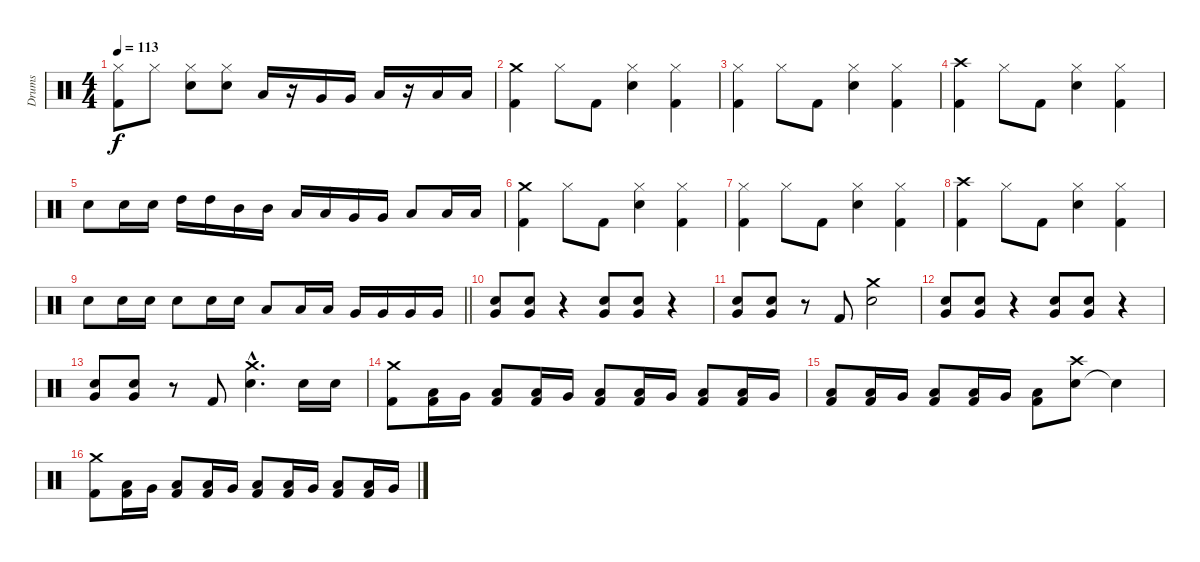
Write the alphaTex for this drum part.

\track ("Drums" "Drums") {instrument percussion}
\staff {score}
\articulation defaults
\ts (4 4)
\tempo 113
\clef neutral
\ks c
("Kick (hit) 2" "Hi-Hat (closed)").8{dy f} "Hi-Hat (closed)".8 ("Snare (hit) 2" "Hi-Hat (closed)").8 ("Snare (hit) 2" "Hi-Hat (closed)").8 "Low Tom (hit)".16 r.16 "Very Low Tom (hit)".16 "Very Low Tom (hit)".16 "Low Floor Tom (hit)".16 r.16 "Low Floor Tom (hit)".16 "Low Floor Tom (hit)".16 |
("Kick (hit) 2" "Crash medium (hit)").4 "Hi-Hat (closed)".8 "Kick (hit) 2".8 ("Snare (hit) 2" "Hi-Hat (closed)").4 ("Kick (hit) 2" "Hi-Hat (closed)").4 |
("Kick (hit) 2" "Hi-Hat (closed)").4 "Hi-Hat (closed)".8 "Kick (hit) 2".8 ("Snare (hit) 2" "Hi-Hat (closed)").4 ("Kick (hit) 2" "Hi-Hat (closed)").4 |
("Kick (hit) 2" "Crash high (hit)").4 "Hi-Hat (closed)".8 "Kick (hit) 2".8 ("Snare (hit) 2" "Hi-Hat (closed)").4 ("Kick (hit) 2" "Hi-Hat (closed)").4 |
"Snare (hit) 2".8 "Snare (hit) 2".16 "Snare (hit) 2".16 "High Tom (hit)".16 "High Tom (hit)".16 "Mid Tom (hit)".16 "Mid Tom (hit)".16 "Low Tom (hit)".16 "Low Tom (hit)".16 "Very Low Tom (hit)".16 "Very Low Tom (hit)".16 "Low Floor Tom (hit)".8 "Low Floor Tom (hit)".16 "Low Floor Tom (hit)".16 |
("Kick (hit) 2" "Crash medium (hit)").4 "Hi-Hat (closed)".8 "Kick (hit) 2".8 ("Snare (hit) 2" "Hi-Hat (closed)").4 ("Kick (hit) 2" "Hi-Hat (closed)").4 |
("Kick (hit) 2" "Hi-Hat (closed)").4 "Hi-Hat (closed)".8 "Kick (hit) 2".8 ("Snare (hit) 2" "Hi-Hat (closed)").4 ("Kick (hit) 2" "Hi-Hat (closed)").4 |
("Kick (hit) 2" "Crash high (hit)").4 "Hi-Hat (closed)".8 "Kick (hit) 2".8 ("Snare (hit) 2" "Hi-Hat (closed)").4 ("Kick (hit) 2" "Hi-Hat (closed)").4 |
\barLineRight lightlight "Snare (hit) 2".8 "Snare (hit) 2".16 "Snare (hit) 2".16 "Snare (hit) 2".8 "Snare (hit) 2".16 "Snare (hit) 2".16 "Low Tom (hit)".8 "Low Tom (hit)".16 "Low Tom (hit)".16 "Very Low Tom (hit)".16 "Very Low Tom (hit)".16 "Very Low Tom (hit)".16 "Very Low Tom (hit)".16
|
("Snare (hit) 2" "Very Low Tom (hit)").8 ("Snare (hit) 2" "Very Low Tom (hit)").8 r.4 ("Snare (hit) 2" "Very Low Tom (hit)").8 ("Snare (hit) 2" "Very Low Tom (hit)").8 r.4 |
("Snare (hit) 2" "Very Low Tom (hit)").8 ("Snare (hit) 2" "Very Low Tom (hit)").8 r.8 "Kick (hit) 2".8 ("Snare (hit) 2" "Crash medium (hit)").2 |
("Snare (hit) 2" "Very Low Tom (hit)").8 ("Snare (hit) 2" "Very Low Tom (hit)").8 r.4 ("Snare (hit) 2" "Very Low Tom (hit)").8 ("Snare (hit) 2" "Very Low Tom (hit)").8 r.4 |
("Snare (hit) 2" "Very Low Tom (hit)").8 ("Snare (hit) 2" "Very Low Tom (hit)").8 r.8 "Kick (hit) 2".8 ("Snare (hit) 2"{hac} "Crash medium (hit)"{hac}).4{d} "Snare (hit) 2".16 "Snare (hit) 2".16 |
("Kick (hit) 2" "Crash medium (hit)").8 ("Kick (hit) 2" "Low Tom (hit)").16 "Very Low Tom (hit)".16 ("Kick (hit) 2" "Low Floor Tom (hit)").8 ("Kick (hit) 2" "Low Tom (hit)").16 "Very Low Tom (hit)".16 ("Kick (hit) 2" "Low Floor Tom (hit)").8 ("Kick (hit) 2" "Low Tom (hit)").16 "Very Low Tom (hit)".16 ("Kick (hit) 2" "Low Floor Tom (hit)").8 ("Kick (hit) 2" "Low Tom (hit)").16 "Very Low Tom (hit)".16 |
("Kick (hit) 2" "Low Floor Tom (hit)").8 ("Kick (hit) 2" "Low Tom (hit)").16 "Very Low Tom (hit)".16 ("Kick (hit) 2" "Low Floor Tom (hit)").8 ("Kick (hit) 2" "Low Tom (hit)").16 "Very Low Tom (hit)".16 ("Kick (hit) 2" "Low Floor Tom (hit)").8 ("Snare (hit) 2" "Crash high (hit)").8 "Snare (hit)"{t}.4 |
("Kick (hit) 2" "Crash medium (hit)").8 ("Kick (hit) 2" "Low Tom (hit)").16 "Very Low Tom (hit)".16 ("Kick (hit) 2" "Low Floor Tom (hit)").8 ("Kick (hit) 2" "Low Tom (hit)").16 "Very Low Tom (hit)".16 ("Kick (hit) 2" "Low Floor Tom (hit)").8 ("Kick (hit) 2" "Low Tom (hit)").16 "Very Low Tom (hit)".16 ("Kick (hit) 2" "Low Floor Tom (hit)").8 ("Kick (hit) 2" "Low Tom (hit)").16 "Very Low Tom (hit)".16
